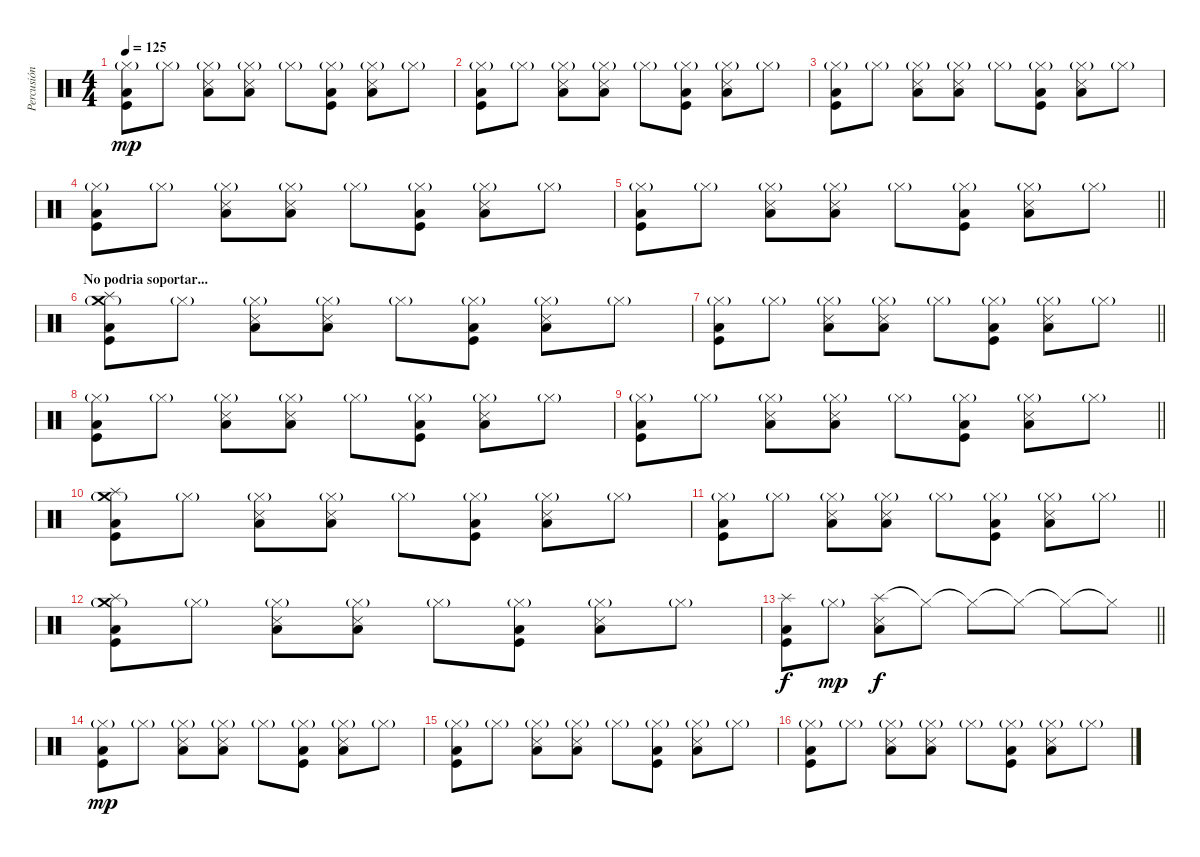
\track ("Percusión" "Percusión") {instrument percussion}
\staff {score}
\articulation defaults
\ts (4 4)
\tempo 125
\clef neutral
\ks c
("Hi-Hat (closed)"{g} "Low Floor Tom (hit)" "Kick (hit)").8{dy mp} "Hi-Hat (closed)"{g}.8 ("Hi-Hat (closed)"{g} "Low Floor Tom (hit)" "Snare (side stick) 3").8 ("Hi-Hat (closed)"{g} "Low Floor Tom (hit)" "Snare (side stick) 3").8 "Hi-Hat (closed)"{g}.8 ("Hi-Hat (closed)"{g} "Low Floor Tom (hit)" "Kick (hit)").8 ("Hi-Hat (closed)"{g} "Low Floor Tom (hit)" "Snare (side stick) 3").8 "Hi-Hat (closed)"{g}.8 |
("Hi-Hat (closed)"{g} "Low Floor Tom (hit)" "Kick (hit)").8 "Hi-Hat (closed)"{g}.8 ("Hi-Hat (closed)"{g} "Low Floor Tom (hit)" "Snare (side stick) 3").8 ("Hi-Hat (closed)"{g} "Low Floor Tom (hit)" "Snare (side stick) 3").8 "Hi-Hat (closed)"{g}.8 ("Hi-Hat (closed)"{g} "Low Floor Tom (hit)" "Kick (hit)").8 ("Hi-Hat (closed)"{g} "Low Floor Tom (hit)" "Snare (side stick) 3").8 "Hi-Hat (closed)"{g}.8 |
("Hi-Hat (closed)"{g} "Low Floor Tom (hit)" "Kick (hit)").8 "Hi-Hat (closed)"{g}.8 ("Hi-Hat (closed)"{g} "Low Floor Tom (hit)" "Snare (side stick) 3").8 ("Hi-Hat (closed)"{g} "Low Floor Tom (hit)" "Snare (side stick) 3").8 "Hi-Hat (closed)"{g}.8 ("Hi-Hat (closed)"{g} "Low Floor Tom (hit)" "Kick (hit)").8 ("Hi-Hat (closed)"{g} "Low Floor Tom (hit)" "Snare (side stick) 3").8 "Hi-Hat (closed)"{g}.8 |
("Hi-Hat (closed)"{g} "Low Floor Tom (hit)" "Kick (hit)").8 "Hi-Hat (closed)"{g}.8 ("Hi-Hat (closed)"{g} "Low Floor Tom (hit)" "Snare (side stick) 3").8 ("Hi-Hat (closed)"{g} "Low Floor Tom (hit)" "Snare (side stick) 3").8 "Hi-Hat (closed)"{g}.8 ("Hi-Hat (closed)"{g} "Low Floor Tom (hit)" "Kick (hit)").8 ("Hi-Hat (closed)"{g} "Low Floor Tom (hit)" "Snare (side stick) 3").8 "Hi-Hat (closed)"{g}.8 |
\barLineRight lightlight
("Hi-Hat (closed)"{g} "Low Floor Tom (hit)" "Kick (hit)").8 "Hi-Hat (closed)"{g}.8 ("Hi-Hat (closed)"{g} "Low Floor Tom (hit)" "Snare (side stick) 3").8 ("Hi-Hat (closed)"{g} "Low Floor Tom (hit)" "Snare (side stick) 3").8 "Hi-Hat (closed)"{g}.8 ("Hi-Hat (closed)"{g} "Low Floor Tom (hit)" "Kick (hit)").8 ("Hi-Hat (closed)"{g} "Low Floor Tom (hit)" "Snare (side stick) 3").8 "Hi-Hat (closed)"{g}.8 |
\section ("" "No podria soportar...")
("Splash (hit)" "Crash medium (hit)"{g} "Low Floor Tom (hit)" "Kick (hit)").8 "Hi-Hat (closed)"{g}.8 ("Hi-Hat (closed)"{g} "Low Floor Tom (hit)" "Snare (side stick) 3").8 ("Hi-Hat (closed)"{g} "Low Floor Tom (hit)" "Snare (side stick) 3").8 "Hi-Hat (closed)"{g}.8 ("Hi-Hat (closed)"{g} "Low Floor Tom (hit)" "Kick (hit)").8 ("Hi-Hat (closed)"{g} "Low Floor Tom (hit)" "Snare (side stick) 3").8 "Hi-Hat (closed)"{g}.8 |
\barLineRight lightlight
("Hi-Hat (closed)"{g} "Low Floor Tom (hit)" "Kick (hit)").8 "Hi-Hat (closed)"{g}.8 ("Hi-Hat (closed)"{g} "Low Floor Tom (hit)" "Snare (side stick) 3").8 ("Hi-Hat (closed)"{g} "Low Floor Tom (hit)" "Snare (side stick) 3").8 "Hi-Hat (closed)"{g}.8 ("Hi-Hat (closed)"{g} "Low Floor Tom (hit)" "Kick (hit)").8 ("Hi-Hat (closed)"{g} "Low Floor Tom (hit)" "Snare (side stick) 3").8 "Hi-Hat (closed)"{g}.8 |
("Hi-Hat (closed)"{g} "Low Floor Tom (hit)" "Kick (hit)").8 "Hi-Hat (closed)"{g}.8 ("Hi-Hat (closed)"{g} "Low Floor Tom (hit)" "Snare (side stick) 3").8 ("Hi-Hat (closed)"{g} "Low Floor Tom (hit)" "Snare (side stick) 3").8 "Hi-Hat (closed)"{g}.8 ("Hi-Hat (closed)"{g} "Low Floor Tom (hit)" "Kick (hit)").8 ("Hi-Hat (closed)"{g} "Low Floor Tom (hit)" "Snare (side stick) 3").8 "Hi-Hat (closed)"{g}.8 |
\barLineRight lightlight
("Hi-Hat (closed)"{g} "Low Floor Tom (hit)" "Kick (hit)").8 "Hi-Hat (closed)"{g}.8 ("Hi-Hat (closed)"{g} "Low Floor Tom (hit)" "Snare (side stick) 3").8 ("Hi-Hat (closed)"{g} "Low Floor Tom (hit)" "Snare (side stick) 3").8 "Hi-Hat (closed)"{g}.8 ("Hi-Hat (closed)"{g} "Low Floor Tom (hit)" "Kick (hit)").8 ("Hi-Hat (closed)"{g} "Low Floor Tom (hit)" "Snare (side stick) 3").8 "Hi-Hat (closed)"{g}.8 |
("Splash (hit)" "Crash medium (hit)"{g} "Low Floor Tom (hit)" "Kick (hit)").8 "Hi-Hat (closed)"{g}.8 ("Hi-Hat (closed)"{g} "Low Floor Tom (hit)" "Snare (side stick) 3").8 ("Hi-Hat (closed)"{g} "Low Floor Tom (hit)" "Snare (side stick) 3").8 "Hi-Hat (closed)"{g}.8 ("Hi-Hat (closed)"{g} "Low Floor Tom (hit)" "Kick (hit)").8 ("Hi-Hat (closed)"{g} "Low Floor Tom (hit)" "Snare (side stick) 3").8 "Hi-Hat (closed)"{g}.8 |
\barLineRight lightlight
("Hi-Hat (closed)"{g} "Low Floor Tom (hit)" "Kick (hit)").8 "Hi-Hat (closed)"{g}.8 ("Hi-Hat (closed)"{g} "Low Floor Tom (hit)" "Snare (side stick) 3").8 ("Hi-Hat (closed)"{g} "Low Floor Tom (hit)" "Snare (side stick) 3").8 "Hi-Hat (closed)"{g}.8 ("Hi-Hat (closed)"{g} "Low Floor Tom (hit)" "Kick (hit)").8 ("Hi-Hat (closed)"{g} "Low Floor Tom (hit)" "Snare (side stick) 3").8 "Hi-Hat (closed)"{g}.8 |
("Splash (hit)" "Crash medium (hit)"{g} "Low Floor Tom (hit)" "Kick (hit)").8 "Hi-Hat (closed)"{g}.8 ("Hi-Hat (closed)"{g} "Low Floor Tom (hit)" "Snare (side stick) 3").8 ("Hi-Hat (closed)"{g} "Low Floor Tom (hit)" "Snare (side stick) 3").8 "Hi-Hat (closed)"{g}.8 ("Hi-Hat (closed)"{g} "Low Floor Tom (hit)" "Kick (hit)").8 ("Hi-Hat (closed)"{g} "Low Floor Tom (hit)" "Snare (side stick) 3").8 "Hi-Hat (closed)"{g}.8 |
\barLineRight lightlight
("Splash (hit)" "Low Floor Tom (hit)" "Kick (hit)").8{dy f} "Hi-Hat (closed)"{g}.8{dy mp} ("Splash (hit)" "Low Floor Tom (hit)" "Snare (side stick) 3").8{dy f} "Hi-Hat (closed)"{t}.8 "Hi-Hat (closed)"{t}.8 "Hi-Hat (closed)"{t}.8 "Hi-Hat (closed)"{t}.8 "Hi-Hat (closed)"{t}.8 |
("Hi-Hat (closed)"{g} "Low Floor Tom (hit)" "Kick (hit)").8{dy mp} "Hi-Hat (closed)"{g}.8 ("Hi-Hat (closed)"{g} "Low Floor Tom (hit)" "Snare (side stick) 3").8 ("Hi-Hat (closed)"{g} "Low Floor Tom (hit)" "Snare (side stick) 3").8 "Hi-Hat (closed)"{g}.8 ("Hi-Hat (closed)"{g} "Low Floor Tom (hit)" "Kick (hit)").8 ("Hi-Hat (closed)"{g} "Low Floor Tom (hit)" "Snare (side stick) 3").8 "Hi-Hat (closed)"{g}.8 |
("Hi-Hat (closed)"{g} "Low Floor Tom (hit)" "Kick (hit)").8 "Hi-Hat (closed)"{g}.8 ("Hi-Hat (closed)"{g} "Low Floor Tom (hit)" "Snare (side stick) 3").8 ("Hi-Hat (closed)"{g} "Low Floor Tom (hit)" "Snare (side stick) 3").8 "Hi-Hat (closed)"{g}.8 ("Hi-Hat (closed)"{g} "Low Floor Tom (hit)" "Kick (hit)").8 ("Hi-Hat (closed)"{g} "Low Floor Tom (hit)" "Snare (side stick) 3").8 "Hi-Hat (closed)"{g}.8 |
("Hi-Hat (closed)"{g} "Low Floor Tom (hit)" "Kick (hit)").8 "Hi-Hat (closed)"{g}.8 ("Hi-Hat (closed)"{g} "Low Floor Tom (hit)" "Snare (side stick) 3").8 ("Hi-Hat (closed)"{g} "Low Floor Tom (hit)" "Snare (side stick) 3").8 "Hi-Hat (closed)"{g}.8 ("Hi-Hat (closed)"{g} "Low Floor Tom (hit)" "Kick (hit)").8 ("Hi-Hat (closed)"{g} "Low Floor Tom (hit)" "Snare (side stick) 3").8 "Hi-Hat (closed)"{g}.8
